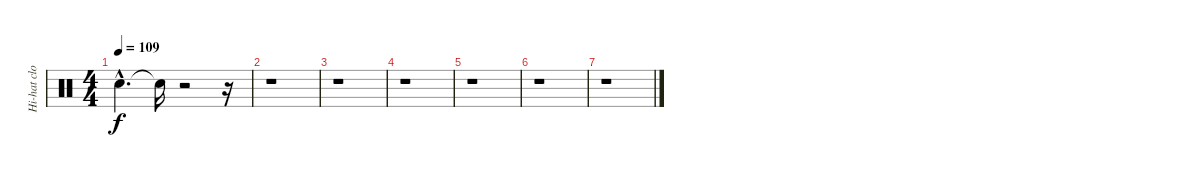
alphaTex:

\track ("Hi-hat closed" "Hi-hat clo") {instrument percussion}
\staff {score}
\articulation defaults
\ts (4 4)
\tempo 109
\clef neutral
\ks c "Snare (hit)"{hac t}.4{d dy f} "Snare (hit)"{t}.16
r.2 r.16 |
r.1 |
r.1 |
r.1 |
r.1 |
r.1 |
r.1
